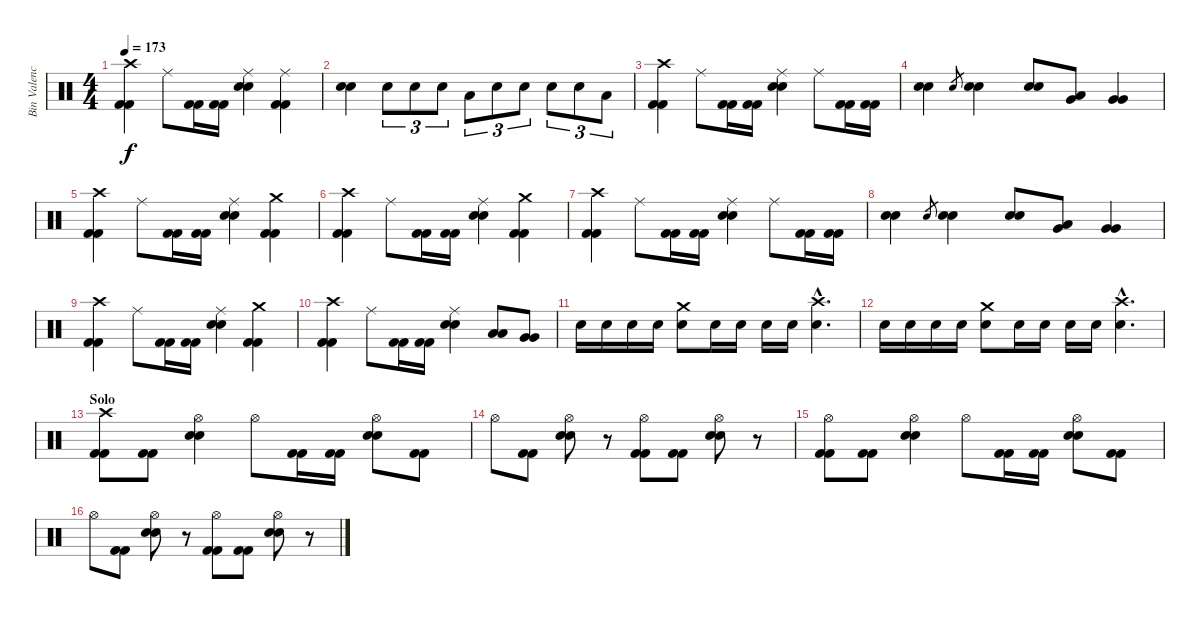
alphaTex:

\track ("Bin Valencia (Bateria)" "Bin Valenc") {instrument percussion}
\staff {score}
\articulation defaults
\ts (4 4)
\tempo 173
\clef neutral
\ks c
("Crash high (hit)" "Kick (hit) 2" "Kick (hit) 2").4{dy f} "Ride (middle)".8 ("Kick (hit) 2" "Kick (hit) 2").16 ("Kick (hit) 2" "Kick (hit) 2").16 ("Ride (middle)" "Snare (hit) 2" "Snare (hit) 2").4 ("Ride (middle)" "Kick (hit) 2" "Kick (hit) 2").4 |
("Snare (hit) 2" "Snare (hit) 2").4 "Snare (hit) 2".8{tu (3 2)} "Snare (hit) 2".8{tu (3 2)} "Snare (hit) 2".8{tu (3 2)} "Low Tom (hit)".8{tu (3 2)} "Snare (hit) 2".8{tu (3 2)} "Snare (hit) 2".8{tu (3 2)} "Snare (hit) 2".8{tu (3 2)} "Snare (hit) 2".8{tu (3 2)} "Low Tom (hit)".8{tu (3 2)} |
("Crash high (hit)" "Kick (hit) 2" "Kick (hit) 2").4 "Ride (middle)".8 ("Kick (hit) 2" "Kick (hit) 2").16 ("Kick (hit) 2" "Kick (hit) 2").16 ("Ride (middle)" "Snare (hit) 2" "Snare (hit) 2").4 "Ride (middle)".8 ("Kick (hit) 2" "Kick (hit) 2").16 ("Kick (hit) 2" "Kick (hit) 2").16 |
("Snare (hit) 2" "Snare (hit) 2").4 "Snare (hit) 2".8{gr} ("Snare (hit) 2" "Snare (hit) 2").4 ("Snare (hit) 2" "Snare (hit) 2").8 ("Low Tom (hit)" "Very Low Tom (hit)").8 ("Very Low Tom (hit)" "Very Low Tom (hit)").4 |
("Crash high (hit)" "Kick (hit) 2" "Kick (hit) 2").4 "Ride (middle)".8 ("Kick (hit) 2" "Kick (hit) 2").16 ("Kick (hit) 2" "Kick (hit) 2").16 ("Ride (middle)" "Snare (hit) 2" "Snare (hit) 2").4 ("Crash medium (hit)" "Kick (hit) 2" "Kick (hit) 2").4 |
("Crash high (hit)" "Kick (hit) 2" "Kick (hit) 2").4 "Ride (middle)".8 ("Kick (hit) 2" "Kick (hit) 2").16 ("Kick (hit) 2" "Kick (hit) 2").16 ("Ride (middle)" "Snare (hit) 2" "Snare (hit) 2").4 ("Crash medium (hit)" "Kick (hit) 2" "Kick (hit) 2").4 |
("Crash high (hit)" "Kick (hit) 2" "Kick (hit) 2").4 "Ride (middle)".8 ("Kick (hit) 2" "Kick (hit) 2").16 ("Kick (hit) 2" "Kick (hit) 2").16 ("Ride (middle)" "Snare (hit) 2" "Snare (hit) 2").4 "Ride (middle)".8 ("Kick (hit) 2" "Kick (hit) 2").16 ("Kick (hit) 2" "Kick (hit) 2").16 |
("Snare (hit) 2" "Snare (hit) 2").4 "Snare (hit) 2".8{gr} ("Snare (hit) 2" "Snare (hit) 2").4 ("Snare (hit) 2" "Snare (hit) 2").8 ("Low Tom (hit)" "Very Low Tom (hit)").8 ("Very Low Tom (hit)" "Very Low Tom (hit)").4 |
("Crash high (hit)" "Kick (hit) 2" "Kick (hit) 2").4 "Ride (middle)".8 ("Kick (hit) 2" "Kick (hit) 2").16 ("Kick (hit) 2" "Kick (hit) 2").16 ("Ride (middle)" "Snare (hit) 2" "Snare (hit) 2").4 ("Crash medium (hit)" "Kick (hit) 2" "Kick (hit) 2").4 |
("Crash high (hit)" "Kick (hit) 2" "Kick (hit) 2").4 "Ride (middle)".8 ("Kick (hit) 2" "Kick (hit) 2").16 ("Kick (hit) 2" "Kick (hit) 2").16 ("Ride (middle)" "Snare (hit) 2" "Snare (hit) 2").4 ("Low Tom (hit)" "Low Tom (hit)").8 ("Very Low Tom (hit)" "Very Low Tom (hit)").8 |
"Snare (hit) 2".16 "Snare (hit) 2".16 "Snare (hit) 2".16 "Snare (hit) 2".16 ("Crash medium (hit)" "Snare (hit) 2").8 "Snare (hit) 2".16 "Snare (hit) 2".16 "Snare (hit) 2".16 "Snare (hit) 2".16 ("Crash high (hit)"{hac} "Snare (hit) 2"{hac}).4{d} |
"Snare (hit) 2".16 "Snare (hit) 2".16 "Snare (hit) 2".16 "Snare (hit) 2".16 ("Crash medium (hit)" "Snare (hit) 2").8 "Snare (hit) 2".16 "Snare (hit) 2".16 "Snare (hit) 2".16 "Snare (hit) 2".16 ("Crash high (hit)"{hac} "Snare (hit) 2"{hac}).4{d} |
\section ("" "Solo")
("Crash high (hit)" "Kick (hit) 2" "Kick (hit) 2").8 ("Kick (hit) 2" "Kick (hit) 2").8 ("Hi-Hat (open)" "Snare (hit) 2" "Snare (hit) 2").4 "Hi-Hat (open)".8 ("Kick (hit) 2" "Kick (hit) 2").16 ("Kick (hit) 2" "Kick (hit) 2").16 ("Hi-Hat (open)" "Snare (hit) 2" "Snare (hit) 2").8 ("Kick (hit) 2" "Kick (hit) 2").8 |
"Hi-Hat (open)".8 ("Kick (hit) 2" "Kick (hit) 2").8 ("Hi-Hat (open)" "Snare (hit) 2" "Snare (hit) 2").8 r.8 ("Hi-Hat (open)" "Kick (hit) 2" "Kick (hit) 2").8 ("Kick (hit) 2" "Kick (hit) 2").8 ("Hi-Hat (open)" "Snare (hit) 2" "Snare (hit) 2").8 r.8 |
("Hi-Hat (open)" "Kick (hit) 2" "Kick (hit) 2").8 ("Kick (hit) 2" "Kick (hit) 2").8 ("Hi-Hat (open)" "Snare (hit) 2" "Snare (hit) 2").4 "Hi-Hat (open)".8 ("Kick (hit) 2" "Kick (hit) 2").16 ("Kick (hit) 2" "Kick (hit) 2").16 ("Hi-Hat (open)" "Snare (hit) 2" "Snare (hit) 2").8 ("Kick (hit) 2" "Kick (hit) 2").8 |
"Hi-Hat (open)".8 ("Kick (hit) 2" "Kick (hit) 2").8 ("Hi-Hat (open)" "Snare (hit) 2" "Snare (hit) 2").8 r.8 ("Hi-Hat (open)" "Kick (hit) 2" "Kick (hit) 2").8 ("Kick (hit) 2" "Kick (hit) 2").8 ("Hi-Hat (open)" "Snare (hit) 2" "Snare (hit) 2").8 r.8
